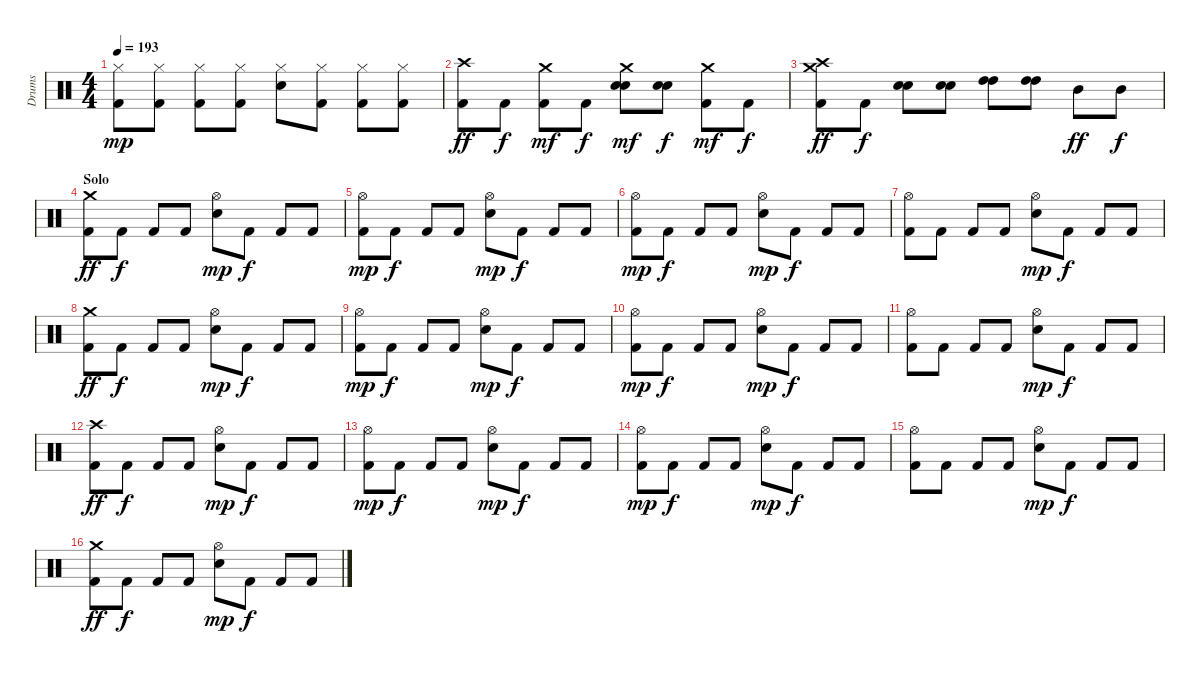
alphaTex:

\track ("Drums" "Drums") {instrument percussion}
\staff {score}
\articulation defaults
\ts (4 4)
\tempo 193
\clef neutral
\ks c
("Hi-Hat (closed)" "Kick (hit) 2").8{dy mp} ("Hi-Hat (closed)" "Kick (hit) 2").8 ("Hi-Hat (closed)" "Kick (hit) 2").8 ("Hi-Hat (closed)" "Kick (hit) 2").8 ("Hi-Hat (closed)" "Electric Snare (hit)").8 ("Hi-Hat (closed)" "Kick (hit) 2").8 ("Hi-Hat (closed)" "Kick (hit) 2").8 ("Hi-Hat (closed)" "Kick (hit) 2").8 |
("Crash high (hit)" "Kick (hit) 2").8{dy ff} "Kick (hit) 2".8{dy f} ("Crash medium (hit)" "Kick (hit) 2").8{dy mf} "Kick (hit) 2".8{dy f} ("Crash medium (hit)" "Electric Snare (hit)" "Electric Snare (hit)").8{bd 480 dy mf} ("Electric Snare (hit)" "Electric Snare (hit)").8{bd 480 dy f} ("Crash medium (hit)" "Kick (hit) 2").8{dy mf} "Kick (hit) 2".8{dy f} |
("Crash medium (hit)" "Crash high (hit)" "Kick (hit) 2").8{dy ff} "Kick (hit) 2".8{dy f} ("Electric Snare (hit)" "Electric Snare (hit)").8{bd 480} ("Electric Snare (hit)" "Electric Snare (hit)").8{bd 480} ("High Tom (hit)" "High Tom (hit)").8{bd 480} ("High Tom (hit)" "High Tom (hit)").8{bd 480} "Mid Tom (hit)".8{dy ff} "Mid Tom (hit)".8{dy f} |
\section ("" "Solo")
("Crash medium (hit)" "Kick (hit) 2").8{dy ff} "Kick (hit) 2".8{dy f} "Kick (hit) 2".8 "Kick (hit) 2".8 ("Hi-Hat (open)" "Electric Snare (hit)").8{dy mp} "Kick (hit) 2".8{dy f} "Kick (hit) 2".8 "Kick (hit) 2".8 |
("Hi-Hat (open)" "Kick (hit) 2").8{dy mp} "Kick (hit) 2".8{dy f} "Kick (hit) 2".8 "Kick (hit) 2".8 ("Hi-Hat (open)" "Electric Snare (hit)").8{dy mp} "Kick (hit) 2".8{dy f} "Kick (hit) 2".8 "Kick (hit) 2".8 |
("Hi-Hat (open)" "Kick (hit) 2").8{dy mp} "Kick (hit) 2".8{dy f} "Kick (hit) 2".8 "Kick (hit) 2".8 ("Hi-Hat (open)" "Electric Snare (hit)").8{dy mp} "Kick (hit) 2".8{dy f} "Kick (hit) 2".8 "Kick (hit) 2".8 |
("Hi-Hat (open)" "Kick (hit) 2").8 "Kick (hit) 2".8 "Kick (hit) 2".8 "Kick (hit) 2".8 ("Hi-Hat (open)" "Electric Snare (hit)").8{dy mp} "Kick (hit) 2".8{dy f} "Kick (hit) 2".8 "Kick (hit) 2".8 |
("Crash medium (hit)" "Kick (hit) 2").8{dy ff} "Kick (hit) 2".8{dy f} "Kick (hit) 2".8 "Kick (hit) 2".8 ("Hi-Hat (open)" "Electric Snare (hit)").8{dy mp} "Kick (hit) 2".8{dy f} "Kick (hit) 2".8 "Kick (hit) 2".8 |
("Hi-Hat (open)" "Kick (hit) 2").8{dy mp} "Kick (hit) 2".8{dy f} "Kick (hit) 2".8 "Kick (hit) 2".8 ("Hi-Hat (open)" "Electric Snare (hit)").8{dy mp} "Kick (hit) 2".8{dy f} "Kick (hit) 2".8 "Kick (hit) 2".8 |
("Hi-Hat (open)" "Kick (hit) 2").8{dy mp} "Kick (hit) 2".8{dy f} "Kick (hit) 2".8 "Kick (hit) 2".8 ("Hi-Hat (open)" "Electric Snare (hit)").8{dy mp} "Kick (hit) 2".8{dy f} "Kick (hit) 2".8 "Kick (hit) 2".8 |
("Hi-Hat (open)" "Kick (hit) 2").8 "Kick (hit) 2".8 "Kick (hit) 2".8 "Kick (hit) 2".8 ("Hi-Hat (open)" "Electric Snare (hit)").8{dy mp} "Kick (hit) 2".8{dy f} "Kick (hit) 2".8 "Kick (hit) 2".8 |
("Crash high (hit)" "Kick (hit) 2").8{dy ff} "Kick (hit) 2".8{dy f} "Kick (hit) 2".8 "Kick (hit) 2".8 ("Hi-Hat (open)" "Electric Snare (hit)").8{dy mp} "Kick (hit) 2".8{dy f} "Kick (hit) 2".8 "Kick (hit) 2".8 |
("Hi-Hat (open)" "Kick (hit) 2").8{dy mp} "Kick (hit) 2".8{dy f} "Kick (hit) 2".8 "Kick (hit) 2".8 ("Hi-Hat (open)" "Electric Snare (hit)").8{dy mp} "Kick (hit) 2".8{dy f} "Kick (hit) 2".8 "Kick (hit) 2".8 |
("Hi-Hat (open)" "Kick (hit) 2").8{dy mp} "Kick (hit) 2".8{dy f} "Kick (hit) 2".8 "Kick (hit) 2".8 ("Hi-Hat (open)" "Electric Snare (hit)").8{dy mp} "Kick (hit) 2".8{dy f} "Kick (hit) 2".8 "Kick (hit) 2".8 |
("Hi-Hat (open)" "Kick (hit) 2").8 "Kick (hit) 2".8 "Kick (hit) 2".8 "Kick (hit) 2".8 ("Hi-Hat (open)" "Electric Snare (hit)").8{dy mp} "Kick (hit) 2".8{dy f} "Kick (hit) 2".8 "Kick (hit) 2".8 |
("Crash medium (hit)" "Kick (hit) 2").8{dy ff} "Kick (hit) 2".8{dy f} "Kick (hit) 2".8 "Kick (hit) 2".8 ("Hi-Hat (open)" "Electric Snare (hit)").8{dy mp} "Kick (hit) 2".8{dy f} "Kick (hit) 2".8 "Kick (hit) 2".8
